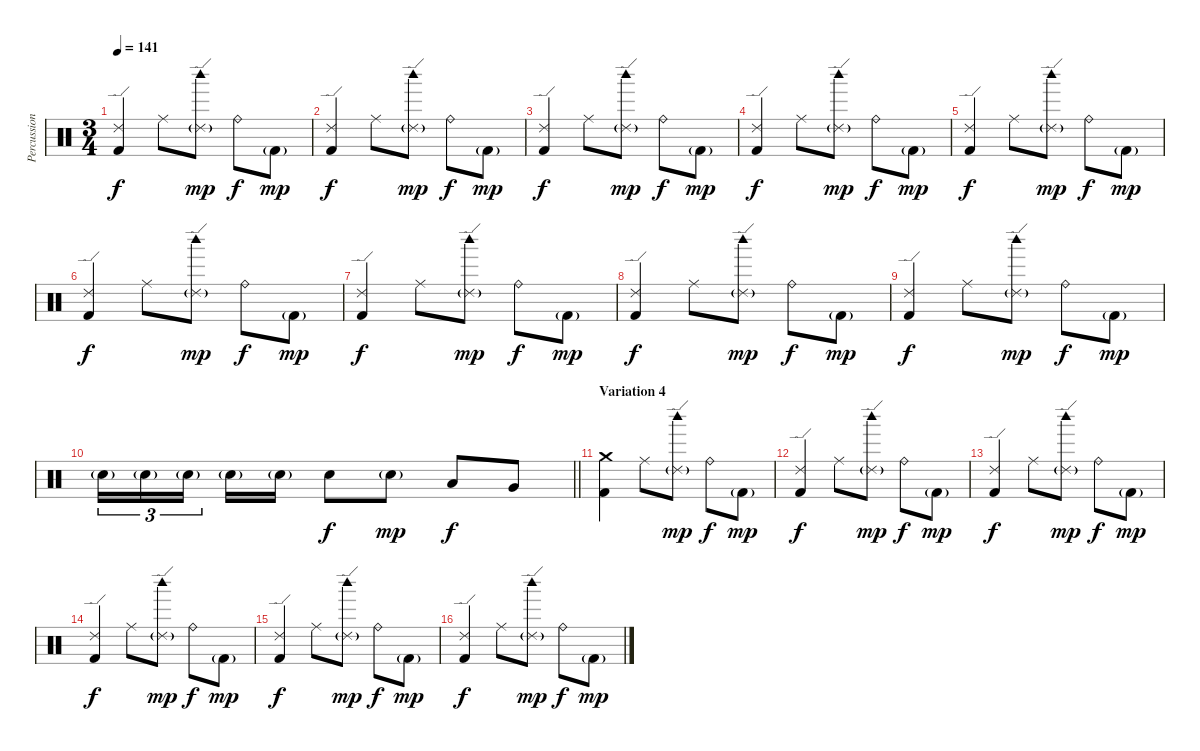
\track ("Percussion" "Percussion") {instrument percussion}
\staff {score}
\articulation defaults
\ts (3 4)
\tempo 141
\clef neutral
\ks c
("Ride (edge) 2" "Kick (hit) 2").4{dy f} "Ride (middle)".8 ("Ride (edge) 2"{g} "Woodblock high (hit)").8{dy mp} "Ride (bell)".8{dy f} "Kick (hit) 2"{g}.8{dy mp} |
("Ride (edge) 2" "Kick (hit) 2").4{dy f} "Ride (middle)".8 ("Ride (edge) 2"{g} "Woodblock high (hit)").8{dy mp} "Ride (bell)".8{dy f} "Kick (hit) 2"{g}.8{dy mp} |
("Ride (edge) 2" "Kick (hit) 2").4{dy f} "Ride (middle)".8 ("Ride (edge) 2"{g} "Woodblock high (hit)").8{dy mp} "Ride (bell)".8{dy f} "Kick (hit) 2"{g}.8{dy mp} |
("Ride (edge) 2" "Kick (hit) 2").4{dy f} "Ride (middle)".8 ("Ride (edge) 2"{g} "Woodblock high (hit)").8{dy mp} "Ride (bell)".8{dy f} "Kick (hit) 2"{g}.8{dy mp} |
("Ride (edge) 2" "Kick (hit) 2").4{dy f} "Ride (middle)".8 ("Ride (edge) 2"{g} "Woodblock high (hit)").8{dy mp} "Ride (bell)".8{dy f} "Kick (hit) 2"{g}.8{dy mp} |
("Ride (edge) 2" "Kick (hit) 2").4{dy f} "Ride (middle)".8 ("Ride (edge) 2"{g} "Woodblock high (hit)").8{dy mp} "Ride (bell)".8{dy f} "Kick (hit) 2"{g}.8{dy mp} |
("Ride (edge) 2" "Kick (hit) 2").4{dy f} "Ride (middle)".8 ("Ride (edge) 2"{g} "Woodblock high (hit)").8{dy mp} "Ride (bell)".8{dy f} "Kick (hit) 2"{g}.8{dy mp} |
("Ride (edge) 2" "Kick (hit) 2").4{dy f} "Ride (middle)".8 ("Ride (edge) 2"{g} "Woodblock high (hit)").8{dy mp} "Ride (bell)".8{dy f} "Kick (hit) 2"{g}.8{dy mp} |
("Ride (edge) 2" "Kick (hit) 2").4{dy f} "Ride (middle)".8 ("Ride (edge) 2"{g} "Woodblock high (hit)").8{dy mp} "Ride (bell)".8{dy f} "Kick (hit) 2"{g}.8{dy mp} |
\barLineRight lightlight "Electric Snare (hit)"{g}.16{tu (3 2)} "Electric Snare (hit)"{g}.16{tu (3 2)} "Electric Snare (hit)"{g}.16{tu (3 2) beam splitsecondary} "Electric Snare (hit)"{g}.16 "Electric Snare (hit)"{g}.16 "Electric Snare (hit)".8{dy f} "Electric Snare (hit)"{g}.8{dy mp} "Low Tom (hit)".8{dy f} "Very Low Tom (hit)".8
|
\section ("" "Variation 4")
("Crash medium (hit)" "Kick (hit) 2").4 "Ride (middle)".8 ("Ride (edge) 2"{g} "Woodblock high (hit)").8{dy mp} "Ride (bell)".8{dy f} "Kick (hit) 2"{g}.8{dy mp} |
("Ride (edge) 2" "Kick (hit) 2").4{dy f} "Ride (middle)".8 ("Ride (edge) 2"{g} "Woodblock high (hit)").8{dy mp} "Ride (bell)".8{dy f} "Kick (hit) 2"{g}.8{dy mp} |
("Ride (edge) 2" "Kick (hit) 2").4{dy f} "Ride (middle)".8 ("Ride (edge) 2"{g} "Woodblock high (hit)").8{dy mp} "Ride (bell)".8{dy f} "Kick (hit) 2"{g}.8{dy mp} |
("Ride (edge) 2" "Kick (hit) 2").4{dy f} "Ride (middle)".8 ("Ride (edge) 2"{g} "Woodblock high (hit)").8{dy mp} "Ride (bell)".8{dy f} "Kick (hit) 2"{g}.8{dy mp} |
("Ride (edge) 2" "Kick (hit) 2").4{dy f} "Ride (middle)".8 ("Ride (edge) 2"{g} "Woodblock high (hit)").8{dy mp} "Ride (bell)".8{dy f} "Kick (hit) 2"{g}.8{dy mp} |
("Ride (edge) 2" "Kick (hit) 2").4{dy f} "Ride (middle)".8 ("Ride (edge) 2"{g} "Woodblock high (hit)").8{dy mp} "Ride (bell)".8{dy f} "Kick (hit) 2"{g}.8{dy mp}
